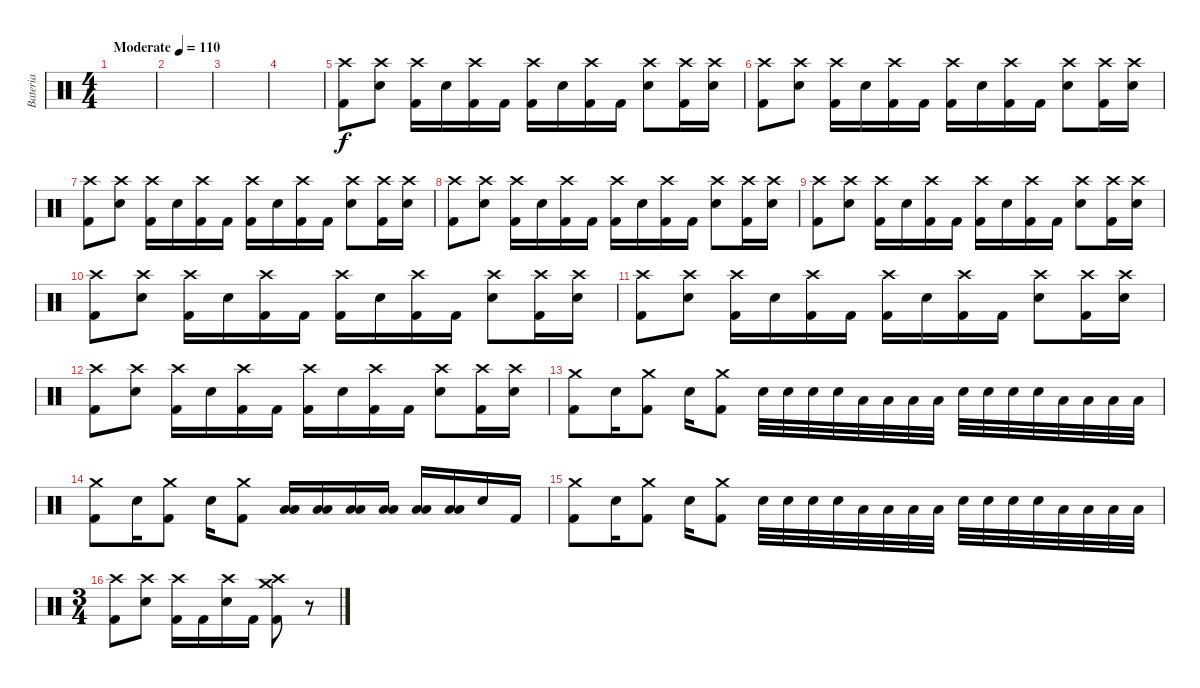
\track ("Bateria" "Bateria") {instrument percussion}
\staff {score}
\articulation defaults
\ts (4 4)
\tempo (110 "Moderate")
\clef neutral
\ks c
|
|
|
|
("Crash high (hit)" "Kick (hit) 2").8 ("Crash high (hit)" "Snare (hit) 2").8 ("Crash high (hit)" "Kick (hit) 2").16 "Snare (hit) 2".16 ("Crash high (hit)" "Kick (hit) 2").16 "Kick (hit) 2".16 ("Crash high (hit)" "Kick (hit) 2").16 "Snare (hit) 2".16 ("Crash high (hit)" "Kick (hit) 2").16 "Kick (hit) 2".16 ("Crash high (hit)" "Snare (hit) 2").8 ("Crash high (hit)" "Kick (hit) 2").16 ("Crash high (hit)" "Snare (hit) 2").16 |
("Crash high (hit)" "Kick (hit) 2").8 ("Crash high (hit)" "Snare (hit) 2").8 ("Crash high (hit)" "Kick (hit) 2").16 "Snare (hit) 2".16 ("Crash high (hit)" "Kick (hit) 2").16 "Kick (hit) 2".16 ("Crash high (hit)" "Kick (hit) 2").16 "Snare (hit) 2".16 ("Crash high (hit)" "Kick (hit) 2").16 "Kick (hit) 2".16 ("Crash high (hit)" "Snare (hit) 2").8 ("Crash high (hit)" "Kick (hit) 2").16 ("Crash high (hit)" "Snare (hit) 2").16 |
("Crash high (hit)" "Kick (hit) 2").8 ("Crash high (hit)" "Snare (hit) 2").8 ("Crash high (hit)" "Kick (hit) 2").16 "Snare (hit) 2".16 ("Crash high (hit)" "Kick (hit) 2").16 "Kick (hit) 2".16 ("Crash high (hit)" "Kick (hit) 2").16 "Snare (hit) 2".16 ("Crash high (hit)" "Kick (hit) 2").16 "Kick (hit) 2".16 ("Crash high (hit)" "Snare (hit) 2").8 ("Crash high (hit)" "Kick (hit) 2").16 ("Crash high (hit)" "Snare (hit) 2").16 |
("Crash high (hit)" "Kick (hit) 2").8 ("Crash high (hit)" "Snare (hit) 2").8 ("Crash high (hit)" "Kick (hit) 2").16 "Snare (hit) 2".16 ("Crash high (hit)" "Kick (hit) 2").16 "Kick (hit) 2".16 ("Crash high (hit)" "Kick (hit) 2").16 "Snare (hit) 2".16 ("Crash high (hit)" "Kick (hit) 2").16 "Kick (hit) 2".16 ("Crash high (hit)" "Snare (hit) 2").8 ("Crash high (hit)" "Kick (hit) 2").16 ("Crash high (hit)" "Snare (hit) 2").16 |
("Crash high (hit)" "Kick (hit) 2").8 ("Crash high (hit)" "Snare (hit) 2").8 ("Crash high (hit)" "Kick (hit) 2").16 "Snare (hit) 2".16 ("Crash high (hit)" "Kick (hit) 2").16 "Kick (hit) 2".16 ("Crash high (hit)" "Kick (hit) 2").16 "Snare (hit) 2".16 ("Crash high (hit)" "Kick (hit) 2").16 "Kick (hit) 2".16 ("Crash high (hit)" "Snare (hit) 2").8 ("Crash high (hit)" "Kick (hit) 2").16 ("Crash high (hit)" "Snare (hit) 2").16 |
("Crash high (hit)" "Kick (hit) 2").8 ("Crash high (hit)" "Snare (hit) 2").8 ("Crash high (hit)" "Kick (hit) 2").16 "Snare (hit) 2".16 ("Crash high (hit)" "Kick (hit) 2").16 "Kick (hit) 2".16 ("Crash high (hit)" "Kick (hit) 2").16 "Snare (hit) 2".16 ("Crash high (hit)" "Kick (hit) 2").16 "Kick (hit) 2".16 ("Crash high (hit)" "Snare (hit) 2").8 ("Crash high (hit)" "Kick (hit) 2").16 ("Crash high (hit)" "Snare (hit) 2").16 |
("Crash high (hit)" "Kick (hit) 2").8 ("Crash high (hit)" "Snare (hit) 2").8 ("Crash high (hit)" "Kick (hit) 2").16 "Snare (hit) 2".16 ("Crash high (hit)" "Kick (hit) 2").16 "Kick (hit) 2".16 ("Crash high (hit)" "Kick (hit) 2").16 "Snare (hit) 2".16 ("Crash high (hit)" "Kick (hit) 2").16 "Kick (hit) 2".16 ("Crash high (hit)" "Snare (hit) 2").8 ("Crash high (hit)" "Kick (hit) 2").16 ("Crash high (hit)" "Snare (hit) 2").16 |
("Crash high (hit)" "Kick (hit) 2").8 ("Crash high (hit)" "Snare (hit) 2").8 ("Crash high (hit)" "Kick (hit) 2").16 "Snare (hit) 2".16 ("Crash high (hit)" "Kick (hit) 2").16 "Kick (hit) 2".16 ("Crash high (hit)" "Kick (hit) 2").16 "Snare (hit) 2".16 ("Crash high (hit)" "Kick (hit) 2").16 "Kick (hit) 2".16 ("Crash high (hit)" "Snare (hit) 2").8 ("Crash high (hit)" "Kick (hit) 2").16 ("Crash high (hit)" "Snare (hit) 2").16 |
("Crash medium (hit)" "Kick (hit) 2").8 "Snare (hit) 2".16 ("Crash medium (hit)" "Kick (hit) 2").8 "Snare (hit) 2".16 ("Crash medium (hit)" "Kick (hit) 2").8 "Snare (hit) 2".32 "Snare (hit) 2".32 "Snare (hit) 2".32 "Snare (hit) 2".32 "Low Tom (hit)".32 "Low Tom (hit)".32 "Low Tom (hit)".32 "Low Tom (hit)".32 "Snare (hit) 2".32 "Snare (hit) 2".32 "Snare (hit) 2".32 "Snare (hit) 2".32 "Low Tom (hit)".32 "Low Tom (hit)".32 "Low Tom (hit)".32 "Low Tom (hit)".32 |
("Crash medium (hit)" "Kick (hit) 2").8 "Snare (hit) 2".16 ("Crash medium (hit)" "Kick (hit) 2").8 "Snare (hit) 2".16 ("Crash medium (hit)" "Kick (hit) 2").8 ("Low Tom (hit)" "Low Floor Tom (hit)").16 ("Low Tom (hit)" "Low Floor Tom (hit)").16 ("Low Tom (hit)" "Low Floor Tom (hit)").16 ("Low Tom (hit)" "Low Floor Tom (hit)").16 ("Low Tom (hit)" "Low Floor Tom (hit)").16 ("Low Tom (hit)" "Low Floor Tom (hit)").16 "Snare (hit) 2".16 "Kick (hit) 2".16 |
("Crash medium (hit)" "Kick (hit) 2").8 "Snare (hit) 2".16 ("Crash medium (hit)" "Kick (hit) 2").8 "Snare (hit) 2".16 ("Crash medium (hit)" "Kick (hit) 2").8 "Snare (hit) 2".32 "Snare (hit) 2".32 "Snare (hit) 2".32 "Snare (hit) 2".32 "Low Tom (hit)".32 "Low Tom (hit)".32 "Low Tom (hit)".32 "Low Tom (hit)".32 "Snare (hit) 2".32 "Snare (hit) 2".32 "Snare (hit) 2".32 "Snare (hit) 2".32 "Low Tom (hit)".32 "Low Tom (hit)".32 "Low Tom (hit)".32 "Low Tom (hit)".32 |
\ts (3 4)
("Crash high (hit)" "Kick (hit) 2").8 ("Crash high (hit)" "Snare (hit) 2").8 ("Crash high (hit)" "Kick (hit) 2").16 "Kick (hit) 2".16 ("Crash high (hit)" "Snare (hit) 2").16 "Kick (hit) 2".16 ("Crash medium (hit)" "Crash high (hit)" "Kick (hit) 2").8 r.8
